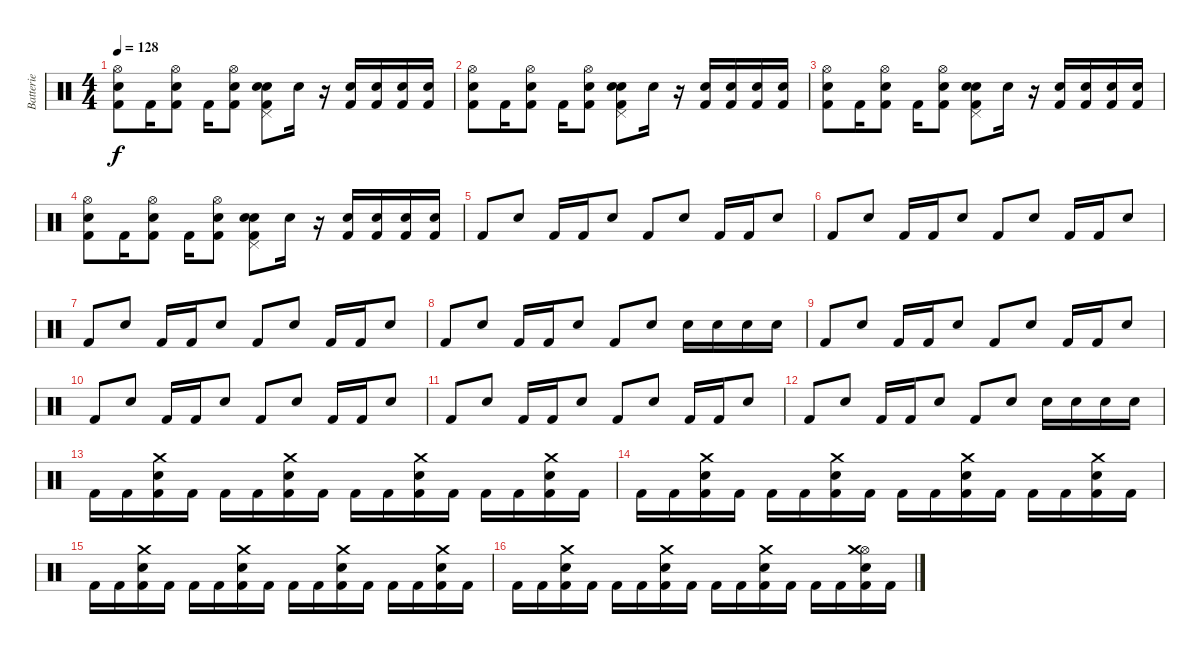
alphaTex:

\track ("Batterie" "Batterie") {instrument percussion}
\staff {score}
\articulation defaults
\ts (4 4)
\tempo 128
\clef neutral
\ks c
("Hi-Hat (open)" "Electric Snare (hit)" "Kick (hit) 2").8{dy f} "Kick (hit) 2".16 ("Hi-Hat (open)" "Electric Snare (hit)" "Kick (hit) 2").8 "Kick (hit) 2".16 ("Hi-Hat (open)" "Electric Snare (hit)" "Kick (hit) 2").8 ("Pedal Hi-Hat (hit)" "Kick (hit) 2" "Snare (hit) 2" "Electric Snare (hit)").8 "Electric Snare (hit)".16 r.16 ("Kick (hit) 2" "Electric Snare (hit)").16 ("Kick (hit) 2" "Electric Snare (hit)").16 ("Kick (hit) 2" "Electric Snare (hit)").16 ("Kick (hit) 2" "Electric Snare (hit)").16 |
("Hi-Hat (open)" "Electric Snare (hit)" "Kick (hit) 2").8 "Kick (hit) 2".16 ("Hi-Hat (open)" "Electric Snare (hit)" "Kick (hit) 2").8 "Kick (hit) 2".16 ("Hi-Hat (open)" "Electric Snare (hit)" "Kick (hit) 2").8 ("Pedal Hi-Hat (hit)" "Kick (hit) 2" "Snare (hit) 2" "Electric Snare (hit)").8 "Electric Snare (hit)".16 r.16 ("Kick (hit) 2" "Electric Snare (hit)").16 ("Kick (hit) 2" "Electric Snare (hit)").16 ("Kick (hit) 2" "Electric Snare (hit)").16 ("Kick (hit) 2" "Electric Snare (hit)").16 |
("Hi-Hat (open)" "Electric Snare (hit)" "Kick (hit) 2").8 "Kick (hit) 2".16 ("Hi-Hat (open)" "Electric Snare (hit)" "Kick (hit) 2").8 "Kick (hit) 2".16 ("Hi-Hat (open)" "Electric Snare (hit)" "Kick (hit) 2").8 ("Pedal Hi-Hat (hit)" "Kick (hit) 2" "Snare (hit) 2" "Electric Snare (hit)").8 "Electric Snare (hit)".16 r.16 ("Kick (hit) 2" "Electric Snare (hit)").16 ("Kick (hit) 2" "Electric Snare (hit)").16 ("Kick (hit) 2" "Electric Snare (hit)").16 ("Kick (hit) 2" "Electric Snare (hit)").16 |
("Hi-Hat (open)" "Electric Snare (hit)" "Kick (hit) 2").8 "Kick (hit) 2".16 ("Hi-Hat (open)" "Electric Snare (hit)" "Kick (hit) 2").8 "Kick (hit) 2".16 ("Hi-Hat (open)" "Electric Snare (hit)" "Kick (hit) 2").8 ("Pedal Hi-Hat (hit)" "Kick (hit) 2" "Snare (hit) 2" "Electric Snare (hit)").8 "Electric Snare (hit)".16 r.16 ("Kick (hit) 2" "Electric Snare (hit)").16 ("Kick (hit) 2" "Electric Snare (hit)").16 ("Kick (hit) 2" "Electric Snare (hit)").16 ("Kick (hit) 2" "Electric Snare (hit)").16 |
"Kick (hit) 2".8 "Electric Snare (hit)".8 "Kick (hit) 2".16 "Kick (hit) 2".16 "Electric Snare (hit)".8 "Kick (hit) 2".8 "Electric Snare (hit)".8 "Kick (hit) 2".16 "Kick (hit) 2".16 "Electric Snare (hit)".8 |
"Kick (hit) 2".8 "Electric Snare (hit)".8 "Kick (hit) 2".16 "Kick (hit) 2".16 "Electric Snare (hit)".8 "Kick (hit) 2".8 "Electric Snare (hit)".8 "Kick (hit) 2".16 "Kick (hit) 2".16 "Electric Snare (hit)".8 |
"Kick (hit) 2".8 "Electric Snare (hit)".8 "Kick (hit) 2".16 "Kick (hit) 2".16 "Electric Snare (hit)".8 "Kick (hit) 2".8 "Electric Snare (hit)".8 "Kick (hit) 2".16 "Kick (hit) 2".16 "Electric Snare (hit)".8 |
"Kick (hit) 2".8 "Electric Snare (hit)".8 "Kick (hit) 2".16 "Kick (hit) 2".16 "Electric Snare (hit)".8 "Kick (hit) 2".8 "Electric Snare (hit)".8 "Electric Snare (hit)".16 "Electric Snare (hit)".16 "Electric Snare (hit)".16 "Electric Snare (hit)".16 |
"Kick (hit) 2".8 "Electric Snare (hit)".8 "Kick (hit) 2".16 "Kick (hit) 2".16 "Electric Snare (hit)".8 "Kick (hit) 2".8 "Electric Snare (hit)".8 "Kick (hit) 2".16 "Kick (hit) 2".16 "Electric Snare (hit)".8 |
"Kick (hit) 2".8 "Electric Snare (hit)".8 "Kick (hit) 2".16 "Kick (hit) 2".16 "Electric Snare (hit)".8 "Kick (hit) 2".8 "Electric Snare (hit)".8 "Kick (hit) 2".16 "Kick (hit) 2".16 "Electric Snare (hit)".8 |
"Kick (hit) 2".8 "Electric Snare (hit)".8 "Kick (hit) 2".16 "Kick (hit) 2".16 "Electric Snare (hit)".8 "Kick (hit) 2".8 "Electric Snare (hit)".8 "Kick (hit) 2".16 "Kick (hit) 2".16 "Electric Snare (hit)".8 |
"Kick (hit) 2".8 "Electric Snare (hit)".8 "Kick (hit) 2".16 "Kick (hit) 2".16 "Electric Snare (hit)".8 "Kick (hit) 2".8 "Electric Snare (hit)".8 "Electric Snare (hit)".16 "Electric Snare (hit)".16 "Electric Snare (hit)".16 "Electric Snare (hit)".16 |
"Kick (hit) 2".16 "Kick (hit) 2".16 ("Crash medium (hit)" "Electric Snare (hit)" "Kick (hit) 2").16 "Kick (hit) 2".16 "Kick (hit) 2".16 "Kick (hit) 2".16 ("Crash medium (hit)" "Electric Snare (hit)" "Kick (hit) 2").16 "Kick (hit) 2".16 "Kick (hit) 2".16 "Kick (hit) 2".16 ("Electric Snare (hit)" "Crash medium (hit)" "Kick (hit) 2").16 "Kick (hit) 2".16 "Kick (hit) 2".16 "Kick (hit) 2".16 ("Crash medium (hit)" "Electric Snare (hit)" "Kick (hit) 2").16 "Kick (hit) 2".16 |
"Kick (hit) 2".16 "Kick (hit) 2".16 ("Crash medium (hit)" "Electric Snare (hit)" "Kick (hit) 2").16 "Kick (hit) 2".16 "Kick (hit) 2".16 "Kick (hit) 2".16 ("Crash medium (hit)" "Electric Snare (hit)" "Kick (hit) 2").16 "Kick (hit) 2".16 "Kick (hit) 2".16 "Kick (hit) 2".16 ("Electric Snare (hit)" "Crash medium (hit)" "Kick (hit) 2").16 "Kick (hit) 2".16 "Kick (hit) 2".16 "Kick (hit) 2".16 ("Crash medium (hit)" "Electric Snare (hit)" "Kick (hit) 2").16 "Kick (hit) 2".16 |
"Kick (hit) 2".16 "Kick (hit) 2".16 ("Crash medium (hit)" "Electric Snare (hit)" "Kick (hit) 2").16 "Kick (hit) 2".16 "Kick (hit) 2".16 "Kick (hit) 2".16 ("Crash medium (hit)" "Electric Snare (hit)" "Kick (hit) 2").16 "Kick (hit) 2".16 "Kick (hit) 2".16 "Kick (hit) 2".16 ("Electric Snare (hit)" "Crash medium (hit)" "Kick (hit) 2").16 "Kick (hit) 2".16 "Kick (hit) 2".16 "Kick (hit) 2".16 ("Crash medium (hit)" "Electric Snare (hit)" "Kick (hit) 2").16 "Kick (hit) 2".16 |
"Kick (hit) 2".16 "Kick (hit) 2".16 ("Crash medium (hit)" "Electric Snare (hit)" "Kick (hit) 2").16 "Kick (hit) 2".16 "Kick (hit) 2".16 "Kick (hit) 2".16 ("Crash medium (hit)" "Electric Snare (hit)" "Kick (hit) 2").16 "Kick (hit) 2".16 "Kick (hit) 2".16 "Kick (hit) 2".16 ("Electric Snare (hit)" "Crash medium (hit)" "Kick (hit) 2").16 "Kick (hit) 2".16 "Kick (hit) 2".16 "Kick (hit) 2".16 ("Hi-Hat (open)" "Crash medium (hit)" "Electric Snare (hit)" "Kick (hit) 2").16 "Kick (hit) 2".16
